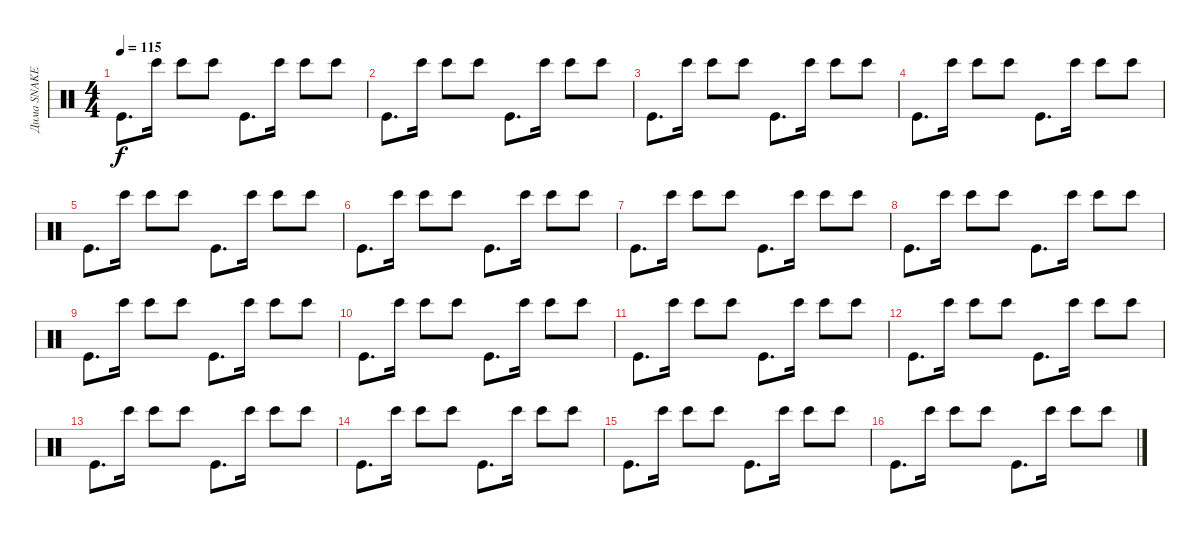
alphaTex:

\track ("Дима SNAKE Хакимов" "Дима SNAKE") {instrument percussion}
\staff {score}
\articulation defaults
\ts (4 4)
\tempo 115
\clef neutral
\ks c "Kick (hit)".8{d dy f} "Bongo High (hit)".16 "Bongo High (hit)".8 "Bongo High (hit)".8 "Kick (hit)".8{d} "Bongo High (hit)".16 "Bongo High (hit)".8 "Bongo High (hit)".8
|
"Kick (hit)".8{d} "Bongo High (hit)".16 "Bongo High (hit)".8 "Bongo High (hit)".8 "Kick (hit)".8{d} "Bongo High (hit)".16 "Bongo High (hit)".8 "Bongo High (hit)".8 |
"Kick (hit)".8{d} "Bongo High (hit)".16 "Bongo High (hit)".8 "Bongo High (hit)".8 "Kick (hit)".8{d} "Bongo High (hit)".16 "Bongo High (hit)".8 "Bongo High (hit)".8 |
"Kick (hit)".8{d} "Bongo High (hit)".16 "Bongo High (hit)".8 "Bongo High (hit)".8 "Kick (hit)".8{d} "Bongo High (hit)".16 "Bongo High (hit)".8 "Bongo High (hit)".8 |
"Kick (hit)".8{d} "Bongo High (hit)".16 "Bongo High (hit)".8 "Bongo High (hit)".8 "Kick (hit)".8{d} "Bongo High (hit)".16 "Bongo High (hit)".8 "Bongo High (hit)".8 |
"Kick (hit)".8{d} "Bongo High (hit)".16 "Bongo High (hit)".8 "Bongo High (hit)".8 "Kick (hit)".8{d} "Bongo High (hit)".16 "Bongo High (hit)".8 "Bongo High (hit)".8 |
"Kick (hit)".8{d} "Bongo High (hit)".16 "Bongo High (hit)".8 "Bongo High (hit)".8 "Kick (hit)".8{d} "Bongo High (hit)".16 "Bongo High (hit)".8 "Bongo High (hit)".8 |
"Kick (hit)".8{d} "Bongo High (hit)".16 "Bongo High (hit)".8 "Bongo High (hit)".8 "Kick (hit)".8{d} "Bongo High (hit)".16 "Bongo High (hit)".8 "Bongo High (hit)".8 |
"Kick (hit)".8{d} "Bongo High (hit)".16 "Bongo High (hit)".8 "Bongo High (hit)".8 "Kick (hit)".8{d} "Bongo High (hit)".16 "Bongo High (hit)".8 "Bongo High (hit)".8 |
"Kick (hit)".8{d} "Bongo High (hit)".16 "Bongo High (hit)".8 "Bongo High (hit)".8 "Kick (hit)".8{d} "Bongo High (hit)".16 "Bongo High (hit)".8 "Bongo High (hit)".8 |
"Kick (hit)".8{d} "Bongo High (hit)".16 "Bongo High (hit)".8 "Bongo High (hit)".8 "Kick (hit)".8{d} "Bongo High (hit)".16 "Bongo High (hit)".8 "Bongo High (hit)".8 |
"Kick (hit)".8{d} "Bongo High (hit)".16 "Bongo High (hit)".8 "Bongo High (hit)".8 "Kick (hit)".8{d} "Bongo High (hit)".16 "Bongo High (hit)".8 "Bongo High (hit)".8 |
"Kick (hit)".8{d} "Bongo High (hit)".16 "Bongo High (hit)".8 "Bongo High (hit)".8 "Kick (hit)".8{d} "Bongo High (hit)".16 "Bongo High (hit)".8 "Bongo High (hit)".8 |
"Kick (hit)".8{d} "Bongo High (hit)".16 "Bongo High (hit)".8 "Bongo High (hit)".8 "Kick (hit)".8{d} "Bongo High (hit)".16 "Bongo High (hit)".8 "Bongo High (hit)".8 |
"Kick (hit)".8{d} "Bongo High (hit)".16 "Bongo High (hit)".8 "Bongo High (hit)".8 "Kick (hit)".8{d} "Bongo High (hit)".16 "Bongo High (hit)".8 "Bongo High (hit)".8 |
"Kick (hit)".8{d} "Bongo High (hit)".16 "Bongo High (hit)".8 "Bongo High (hit)".8 "Kick (hit)".8{d} "Bongo High (hit)".16 "Bongo High (hit)".8 "Bongo High (hit)".8
